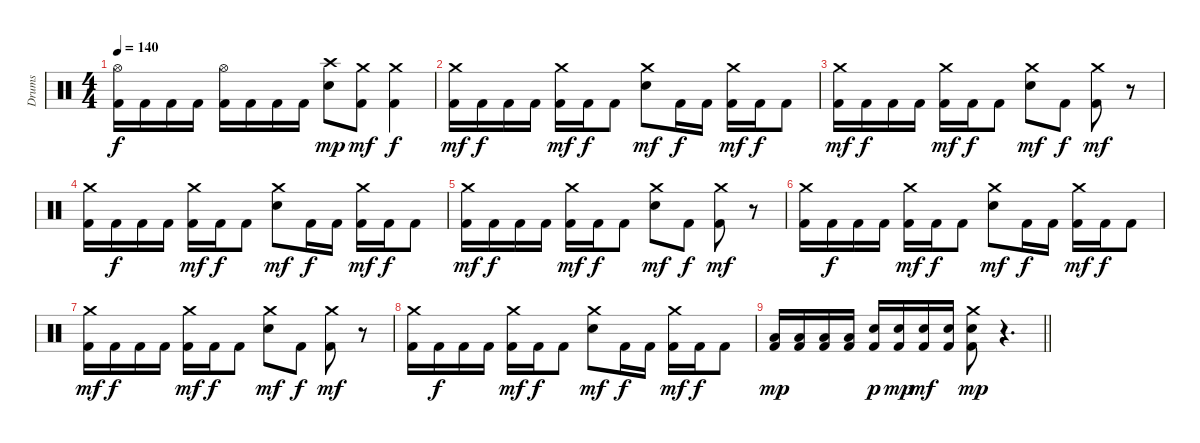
\track ("Drums" "Drums") {instrument percussion}
\staff {score}
\articulation defaults
\ts (4 4)
\tempo 140
\clef neutral
\ks aminor
("Hi-Hat (open)" "Kick (hit) 2").16{dy f} "Kick (hit) 2".16 "Kick (hit) 2".16 "Kick (hit) 2".16 ("Hi-Hat (open)" "Kick (hit) 2").16 "Kick (hit) 2".16 "Kick (hit) 2".16 "Kick (hit) 2".16 ("Crash high (hit)" "Snare (hit) 2").8{dy mp} ("Crash medium (hit)" "Kick (hit) 2").8{dy mf} ("Crash medium (hit)" "Kick (hit) 2").4{dy f} |
("Crash medium (hit)" "Kick (hit) 2").16{dy mf} "Kick (hit) 2".16{dy f} "Kick (hit) 2".16 "Kick (hit) 2".16 ("Crash medium (hit)" "Kick (hit) 2").16{dy mf} "Kick (hit) 2".16{dy f} "Kick (hit) 2".8 ("Crash medium (hit)" "Snare (hit) 2").8{dy mf} "Kick (hit) 2".16{dy f} "Kick (hit) 2".16 ("Crash medium (hit)" "Kick (hit) 2").16{dy mf} "Kick (hit) 2".16{dy f} "Kick (hit) 2".8 |
("Crash medium (hit)" "Kick (hit) 2").16{dy mf} "Kick (hit) 2".16{dy f} "Kick (hit) 2".16 "Kick (hit) 2".16 ("Crash medium (hit)" "Kick (hit) 2").16{dy mf} "Kick (hit) 2".16{dy f} "Kick (hit) 2".8 ("Crash medium (hit)" "Snare (hit) 2").8{dy mf} "Kick (hit) 2".8{dy f} ("Crash medium (hit)" "Kick (hit) 2").8{dy mf} r.8 |
("Crash medium (hit)" "Kick (hit) 2").16 "Kick (hit) 2".16{dy f} "Kick (hit) 2".16 "Kick (hit) 2".16 ("Crash medium (hit)" "Kick (hit) 2").16{dy mf} "Kick (hit) 2".16{dy f} "Kick (hit) 2".8 ("Crash medium (hit)" "Snare (hit) 2").8{dy mf} "Kick (hit) 2".16{dy f} "Kick (hit) 2".16 ("Crash medium (hit)" "Kick (hit) 2").16{dy mf} "Kick (hit) 2".16{dy f} "Kick (hit) 2".8 |
("Crash medium (hit)" "Kick (hit) 2").16{dy mf} "Kick (hit) 2".16{dy f} "Kick (hit) 2".16 "Kick (hit) 2".16 ("Crash medium (hit)" "Kick (hit) 2").16{dy mf} "Kick (hit) 2".16{dy f} "Kick (hit) 2".8 ("Crash medium (hit)" "Snare (hit) 2").8{dy mf} "Kick (hit) 2".8{dy f} ("Crash medium (hit)" "Kick (hit) 2").8{dy mf} r.8 |
("Crash medium (hit)" "Kick (hit) 2").16 "Kick (hit) 2".16{dy f} "Kick (hit) 2".16 "Kick (hit) 2".16 ("Crash medium (hit)" "Kick (hit) 2").16{dy mf} "Kick (hit) 2".16{dy f} "Kick (hit) 2".8 ("Crash medium (hit)" "Snare (hit) 2").8{dy mf} "Kick (hit) 2".16{dy f} "Kick (hit) 2".16 ("Crash medium (hit)" "Kick (hit) 2").16{dy mf} "Kick (hit) 2".16{dy f} "Kick (hit) 2".8 |
("Crash medium (hit)" "Kick (hit) 2").16{dy mf} "Kick (hit) 2".16{dy f} "Kick (hit) 2".16 "Kick (hit) 2".16 ("Crash medium (hit)" "Kick (hit) 2").16{dy mf} "Kick (hit) 2".16{dy f} "Kick (hit) 2".8 ("Crash medium (hit)" "Snare (hit) 2").8{dy mf} "Kick (hit) 2".8{dy f} ("Crash medium (hit)" "Kick (hit) 2").8{dy mf} r.8 |
("Crash medium (hit)" "Kick (hit) 2").16 "Kick (hit) 2".16{dy f} "Kick (hit) 2".16 "Kick (hit) 2".16 ("Crash medium (hit)" "Kick (hit) 2").16{dy mf} "Kick (hit) 2".16{dy f} "Kick (hit) 2".8 ("Crash medium (hit)" "Snare (hit) 2").8{dy mf} "Kick (hit) 2".16{dy f} "Kick (hit) 2".16 ("Crash medium (hit)" "Kick (hit) 2").16{dy mf} "Kick (hit) 2".16{dy f} "Kick (hit) 2".8 |
\barLineRight lightlight
("Low Floor Tom (hit)" "Kick (hit) 2").16{dy mp} ("Low Floor Tom (hit)" "Kick (hit) 2").16 ("Low Floor Tom (hit)" "Kick (hit) 2").16 ("Low Floor Tom (hit)" "Kick (hit) 2").16 ("Snare (hit) 2" "Kick (hit) 2").16{dy p} ("Snare (hit) 2" "Kick (hit) 2").16{dy mp} ("Snare (hit) 2" "Kick (hit) 2").16{dy mf} ("Snare (hit) 2" "Kick (hit) 2").16 ("Crash medium (hit)" "Snare (hit) 2" "Kick (hit) 2").8{dy mp} r.4{d}
